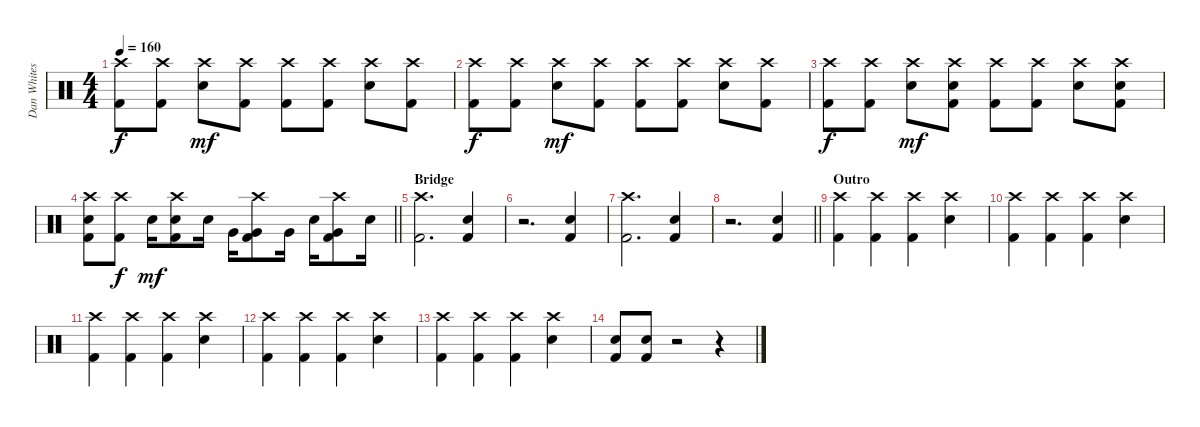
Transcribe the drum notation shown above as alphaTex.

\track ("Dan Whitesides" "Dan Whites") {instrument percussion}
\staff {score}
\articulation defaults
\ts (4 4)
\tempo 160
\clef neutral
\ks c
("Crash high (hit)" "Kick (hit) 2").8{dy f} ("Crash high (hit)" "Kick (hit) 2").8 ("Crash high (hit)" "Snare (hit) 2").8{dy mf} ("Crash high (hit)" "Kick (hit) 2").8 ("Crash high (hit)" "Kick (hit) 2").8 ("Crash high (hit)" "Kick (hit) 2").8 ("Crash high (hit)" "Snare (hit) 2").8 ("Crash high (hit)" "Kick (hit) 2").8 |
("Crash high (hit)" "Kick (hit) 2").8{dy f} ("Crash high (hit)" "Kick (hit) 2").8 ("Crash high (hit)" "Snare (hit) 2").8{dy mf} ("Crash high (hit)" "Kick (hit) 2").8 ("Crash high (hit)" "Kick (hit) 2").8 ("Crash high (hit)" "Kick (hit) 2").8 ("Crash high (hit)" "Snare (hit) 2").8 ("Crash high (hit)" "Kick (hit) 2").8 |
("Crash high (hit)" "Kick (hit) 2").8{dy f} ("Crash high (hit)" "Kick (hit) 2").8 ("Crash high (hit)" "Snare (hit) 2").8{dy mf} ("Crash high (hit)" "Snare (hit) 2" "Kick (hit) 2").8 ("Crash high (hit)" "Kick (hit) 2").8 ("Crash high (hit)" "Kick (hit) 2").8 ("Crash high (hit)" "Snare (hit) 2").8 ("Crash high (hit)" "Snare (hit) 2" "Kick (hit) 2").8 |
\barLineRight lightlight
("Crash high (hit)" "Snare (hit) 2" "Kick (hit) 2").8 ("Crash high (hit)" "Kick (hit) 2").8{dy f} "Snare (hit) 2".16{dy mf} ("Crash high (hit)" "Snare (hit) 2" "Kick (hit) 2").8 "Snare (hit) 2".16 "Very Low Tom (hit)".16 ("Crash high (hit)" "Very Low Tom (hit)" "Kick (hit) 2").8 "Very Low Tom (hit)".16 "Snare (hit) 2".16 ("Crash high (hit)" "Very Low Tom (hit)" "Kick (hit) 2").8 "Snare (hit) 2".16 |
\section ("" "Bridge")
("Crash high (hit)" "Kick (hit) 2").2{d} ("Snare (hit) 2" "Kick (hit) 2").4 |
r.2{d} ("Snare (hit) 2" "Kick (hit) 2").4 |
("Crash high (hit)" "Kick (hit) 2").2{d} ("Snare (hit) 2" "Kick (hit) 2").4 |
\barLineRight lightlight
r.2{d} ("Snare (hit) 2" "Kick (hit) 2").4 |
\section ("" "Outro")
("Crash high (hit)" "Kick (hit) 2").4 ("Crash high (hit)" "Kick (hit) 2").4 ("Crash high (hit)" "Kick (hit) 2").4 ("Crash high (hit)" "Snare (hit) 2").4 |
("Crash high (hit)" "Kick (hit) 2").4 ("Crash high (hit)" "Kick (hit) 2").4 ("Crash high (hit)" "Kick (hit) 2").4 ("Crash high (hit)" "Snare (hit) 2").4 |
("Crash high (hit)" "Kick (hit) 2").4 ("Crash high (hit)" "Kick (hit) 2").4 ("Crash high (hit)" "Kick (hit) 2").4 ("Crash high (hit)" "Snare (hit) 2").4 |
("Crash high (hit)" "Kick (hit) 2").4 ("Crash high (hit)" "Kick (hit) 2").4 ("Crash high (hit)" "Kick (hit) 2").4 ("Crash high (hit)" "Snare (hit) 2").4 |
("Crash high (hit)" "Kick (hit) 2").4 ("Crash high (hit)" "Kick (hit) 2").4 ("Crash high (hit)" "Kick (hit) 2").4 ("Crash high (hit)" "Snare (hit) 2").4 |
("Kick (hit) 2" "Snare (hit) 2").8 ("Kick (hit) 2" "Snare (hit) 2").8 r.2 r.4
